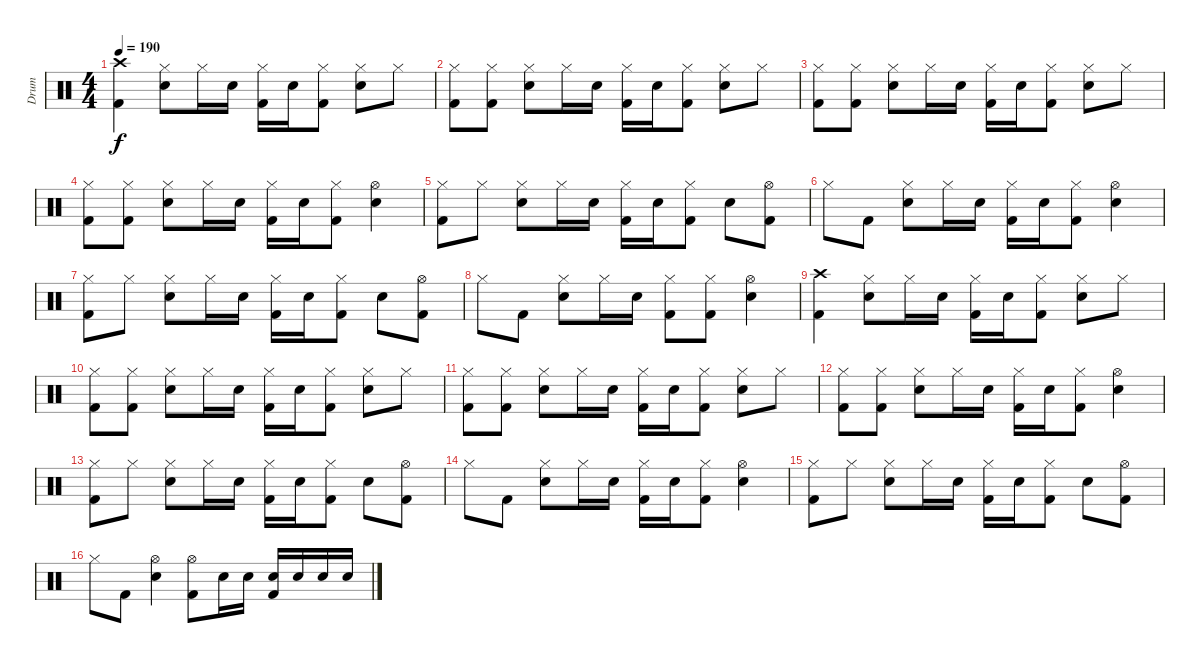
\track ("Drum" "Drum") {instrument percussion}
\staff {score}
\articulation defaults
\ts (4 4)
\tempo 190
\clef neutral
\ks c
("Crash high (hit)" "Kick (hit) 2").4{dy f} ("Hi-Hat (closed)" "Electric Snare (hit)").8 "Hi-Hat (closed)".16 "Electric Snare (hit)".16 ("Hi-Hat (closed)" "Kick (hit) 2").16 "Electric Snare (hit)".16 ("Hi-Hat (closed)" "Kick (hit) 2").8 ("Hi-Hat (closed)" "Electric Snare (hit)").8 "Hi-Hat (closed)".8 |
("Hi-Hat (closed)" "Kick (hit) 2").8 ("Hi-Hat (closed)" "Kick (hit) 2").8 ("Hi-Hat (closed)" "Electric Snare (hit)").8 "Hi-Hat (closed)".16 "Electric Snare (hit)".16 ("Hi-Hat (closed)" "Kick (hit) 2").16 "Electric Snare (hit)".16 ("Hi-Hat (closed)" "Kick (hit) 2").8 ("Hi-Hat (closed)" "Electric Snare (hit)").8 "Hi-Hat (closed)".8 |
("Hi-Hat (closed)" "Kick (hit) 2").8 ("Hi-Hat (closed)" "Kick (hit) 2").8 ("Hi-Hat (closed)" "Electric Snare (hit)").8 "Hi-Hat (closed)".16 "Electric Snare (hit)".16 ("Hi-Hat (closed)" "Kick (hit) 2").16 "Electric Snare (hit)".16 ("Hi-Hat (closed)" "Kick (hit) 2").8 ("Hi-Hat (closed)" "Electric Snare (hit)").8 "Hi-Hat (closed)".8 |
("Hi-Hat (closed)" "Kick (hit) 2").8 ("Hi-Hat (closed)" "Kick (hit) 2").8 ("Hi-Hat (closed)" "Electric Snare (hit)").8 "Hi-Hat (closed)".16 "Electric Snare (hit)".16 ("Hi-Hat (closed)" "Kick (hit) 2").16 "Electric Snare (hit)".16 ("Hi-Hat (closed)" "Kick (hit) 2").8 ("Hi-Hat (open)" "Electric Snare (hit)").4 |
("Hi-Hat (closed)" "Kick (hit) 2").8 "Hi-Hat (closed)".8 ("Hi-Hat (closed)" "Electric Snare (hit)").8 "Hi-Hat (closed)".16 "Electric Snare (hit)".16 ("Hi-Hat (closed)" "Kick (hit) 2").16 "Electric Snare (hit)".16 ("Hi-Hat (closed)" "Kick (hit) 2").8 "Electric Snare (hit)".8 ("Hi-Hat (open)" "Kick (hit) 2").8 |
"Hi-Hat (closed)".8 "Kick (hit) 2".8 ("Hi-Hat (closed)" "Electric Snare (hit)").8 "Hi-Hat (closed)".16 "Electric Snare (hit)".16 ("Hi-Hat (closed)" "Kick (hit) 2").16 "Electric Snare (hit)".16 ("Hi-Hat (closed)" "Kick (hit) 2").8 ("Hi-Hat (open)" "Electric Snare (hit)").4 |
("Hi-Hat (closed)" "Kick (hit) 2").8 "Hi-Hat (closed)".8 ("Hi-Hat (closed)" "Electric Snare (hit)").8 "Hi-Hat (closed)".16 "Electric Snare (hit)".16 ("Hi-Hat (closed)" "Kick (hit) 2").16 "Electric Snare (hit)".16 ("Hi-Hat (closed)" "Kick (hit) 2").8 "Electric Snare (hit)".8 ("Hi-Hat (open)" "Kick (hit) 2").8 |
"Hi-Hat (closed)".8 "Kick (hit) 2".8 ("Hi-Hat (closed)" "Electric Snare (hit)").8 "Hi-Hat (closed)".16 "Electric Snare (hit)".16 ("Hi-Hat (closed)" "Kick (hit) 2").8 ("Hi-Hat (closed)" "Kick (hit) 2").8 ("Hi-Hat (open)" "Electric Snare (hit)").4 |
("Crash high (hit)" "Kick (hit) 2").4 ("Hi-Hat (closed)" "Electric Snare (hit)").8 "Hi-Hat (closed)".16 "Electric Snare (hit)".16 ("Hi-Hat (closed)" "Kick (hit) 2").16 "Electric Snare (hit)".16 ("Hi-Hat (closed)" "Kick (hit) 2").8 ("Hi-Hat (closed)" "Electric Snare (hit)").8 "Hi-Hat (closed)".8 |
("Hi-Hat (closed)" "Kick (hit) 2").8 ("Hi-Hat (closed)" "Kick (hit) 2").8 ("Hi-Hat (closed)" "Electric Snare (hit)").8 "Hi-Hat (closed)".16 "Electric Snare (hit)".16 ("Hi-Hat (closed)" "Kick (hit) 2").16 "Electric Snare (hit)".16 ("Hi-Hat (closed)" "Kick (hit) 2").8 ("Hi-Hat (closed)" "Electric Snare (hit)").8 "Hi-Hat (closed)".8 |
("Hi-Hat (closed)" "Kick (hit) 2").8 ("Hi-Hat (closed)" "Kick (hit) 2").8 ("Hi-Hat (closed)" "Electric Snare (hit)").8 "Hi-Hat (closed)".16 "Electric Snare (hit)".16 ("Hi-Hat (closed)" "Kick (hit) 2").16 "Electric Snare (hit)".16 ("Hi-Hat (closed)" "Kick (hit) 2").8 ("Hi-Hat (closed)" "Electric Snare (hit)").8 "Hi-Hat (closed)".8 |
("Hi-Hat (closed)" "Kick (hit) 2").8 ("Hi-Hat (closed)" "Kick (hit) 2").8 ("Hi-Hat (closed)" "Electric Snare (hit)").8 "Hi-Hat (closed)".16 "Electric Snare (hit)".16 ("Hi-Hat (closed)" "Kick (hit) 2").16 "Electric Snare (hit)".16 ("Hi-Hat (closed)" "Kick (hit) 2").8 ("Hi-Hat (open)" "Electric Snare (hit)").4 |
("Hi-Hat (closed)" "Kick (hit) 2").8 "Hi-Hat (closed)".8 ("Hi-Hat (closed)" "Electric Snare (hit)").8 "Hi-Hat (closed)".16 "Electric Snare (hit)".16 ("Hi-Hat (closed)" "Kick (hit) 2").16 "Electric Snare (hit)".16 ("Hi-Hat (closed)" "Kick (hit) 2").8 "Electric Snare (hit)".8 ("Hi-Hat (open)" "Kick (hit) 2").8 |
"Hi-Hat (closed)".8 "Kick (hit) 2".8 ("Hi-Hat (closed)" "Electric Snare (hit)").8 "Hi-Hat (closed)".16 "Electric Snare (hit)".16 ("Hi-Hat (closed)" "Kick (hit) 2").16 "Electric Snare (hit)".16 ("Hi-Hat (closed)" "Kick (hit) 2").8 ("Hi-Hat (open)" "Electric Snare (hit)").4 |
("Hi-Hat (closed)" "Kick (hit) 2").8 "Hi-Hat (closed)".8 ("Hi-Hat (closed)" "Electric Snare (hit)").8 "Hi-Hat (closed)".16 "Electric Snare (hit)".16 ("Hi-Hat (closed)" "Kick (hit) 2").16 "Electric Snare (hit)".16 ("Hi-Hat (closed)" "Kick (hit) 2").8 "Electric Snare (hit)".8 ("Hi-Hat (open)" "Kick (hit) 2").8 |
"Hi-Hat (closed)".8 "Kick (hit) 2".8 ("Hi-Hat (open)" "Electric Snare (hit)").4 ("Hi-Hat (open)" "Kick (hit) 2").8 "Electric Snare (hit)".16 "Electric Snare (hit)".16 ("Electric Snare (hit)" "Kick (hit) 2").16 "Electric Snare (hit)".16 "Electric Snare (hit)".16 "Electric Snare (hit)".16
